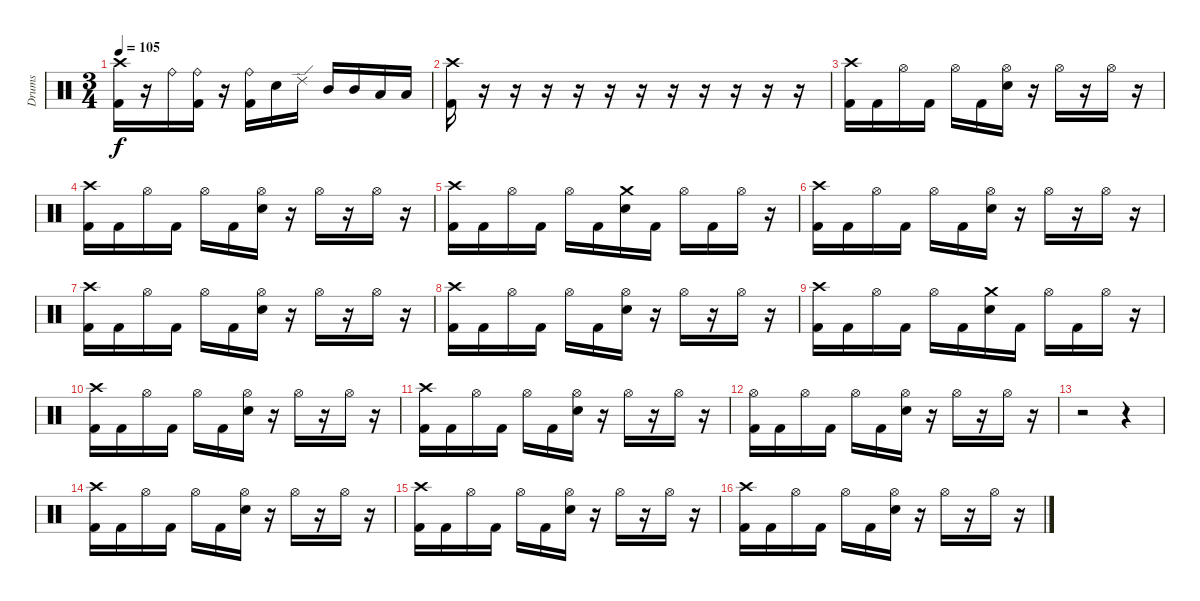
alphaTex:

\track ("Drums" "Drums") {instrument percussion}
\staff {score}
\articulation defaults
\ts (3 4)
\tempo 105
\clef neutral
\ks c
("Crash high (hit)" "Kick (hit) 2").16{dy f} r.16 "Ride (bell)".16 ("Ride (bell)" "Kick (hit) 2").16 r.16 ("Ride (bell)" "Kick (hit) 2").16 "Electric Snare (hit)".16 "Ride (edge) 2".16 "Mid Tom (hit)".16 "Mid Tom (hit)".16 "Low Tom (hit)".16 "Low Tom (hit)".16 |
("Crash high (hit)" "Kick (hit) 2").16 r.16 r.16 r.16 r.16 r.16 r.16 r.16 r.16 r.16 r.16 r.16 |
("Crash high (hit)" "Kick (hit) 2").16 "Kick (hit) 2".16 "Hi-Hat (open)".16 "Kick (hit) 2".16 "Hi-Hat (open)".16 "Kick (hit) 2".16 ("Hi-Hat (open)" "Electric Snare (hit)").16 r.16 "Hi-Hat (open)".16 r.16 "Hi-Hat (open)".16 r.16 |
("Crash high (hit)" "Kick (hit) 2").16 "Kick (hit) 2".16 "Hi-Hat (open)".16 "Kick (hit) 2".16 "Hi-Hat (open)".16 "Kick (hit) 2".16 ("Hi-Hat (open)" "Electric Snare (hit)").16 r.16 "Hi-Hat (open)".16 r.16 "Hi-Hat (open)".16 r.16 |
("Crash high (hit)" "Kick (hit) 2").16 "Kick (hit) 2".16 "Hi-Hat (open)".16 "Kick (hit) 2".16 "Hi-Hat (open)".16 "Kick (hit) 2".16 ("Crash medium (hit)" "Electric Snare (hit)").16 "Kick (hit) 2".16 "Hi-Hat (open)".16 "Kick (hit) 2".16 "Hi-Hat (open)".16 r.16 |
("Crash high (hit)" "Kick (hit) 2").16 "Kick (hit) 2".16 "Hi-Hat (open)".16 "Kick (hit) 2".16 "Hi-Hat (open)".16 "Kick (hit) 2".16 ("Hi-Hat (open)" "Electric Snare (hit)").16 r.16 "Hi-Hat (open)".16 r.16 "Hi-Hat (open)".16 r.16 |
("Crash high (hit)" "Kick (hit) 2").16 "Kick (hit) 2".16 "Hi-Hat (open)".16 "Kick (hit) 2".16 "Hi-Hat (open)".16 "Kick (hit) 2".16 ("Hi-Hat (open)" "Electric Snare (hit)").16 r.16 "Hi-Hat (open)".16 r.16 "Hi-Hat (open)".16 r.16 |
("Crash high (hit)" "Kick (hit) 2").16 "Kick (hit) 2".16 "Hi-Hat (open)".16 "Kick (hit) 2".16 "Hi-Hat (open)".16 "Kick (hit) 2".16 ("Hi-Hat (open)" "Electric Snare (hit)").16 r.16 "Hi-Hat (open)".16 r.16 "Hi-Hat (open)".16 r.16 |
("Crash high (hit)" "Kick (hit) 2").16 "Kick (hit) 2".16 "Hi-Hat (open)".16 "Kick (hit) 2".16 "Hi-Hat (open)".16 "Kick (hit) 2".16 ("Crash medium (hit)" "Electric Snare (hit)").16 "Kick (hit) 2".16 "Hi-Hat (open)".16 "Kick (hit) 2".16 "Hi-Hat (open)".16 r.16 |
("Crash high (hit)" "Kick (hit) 2").16 "Kick (hit) 2".16 "Hi-Hat (open)".16 "Kick (hit) 2".16 "Hi-Hat (open)".16 "Kick (hit) 2".16 ("Hi-Hat (open)" "Electric Snare (hit)").16 r.16 "Hi-Hat (open)".16 r.16 "Hi-Hat (open)".16 r.16 |
("Crash high (hit)" "Kick (hit) 2").16 "Kick (hit) 2".16 "Hi-Hat (open)".16 "Kick (hit) 2".16 "Hi-Hat (open)".16 "Kick (hit) 2".16 ("Hi-Hat (open)" "Electric Snare (hit)").16 r.16 "Hi-Hat (open)".16 r.16 "Hi-Hat (open)".16 r.16 |
("Hi-Hat (open)" "Kick (hit) 2").16 "Kick (hit) 2".16 "Hi-Hat (open)".16 "Kick (hit) 2".16 "Hi-Hat (open)".16 "Kick (hit) 2".16 ("Hi-Hat (open)" "Electric Snare (hit)").16 r.16 "Hi-Hat (open)".16 r.16 "Hi-Hat (open)".16 r.16 |
r.2 r.4 |
("Crash high (hit)" "Kick (hit) 2").16 "Kick (hit) 2".16 "Hi-Hat (open)".16 "Kick (hit) 2".16 "Hi-Hat (open)".16 "Kick (hit) 2".16 ("Hi-Hat (open)" "Electric Snare (hit)").16 r.16 "Hi-Hat (open)".16 r.16 "Hi-Hat (open)".16 r.16 |
("Crash high (hit)" "Kick (hit) 2").16 "Kick (hit) 2".16 "Hi-Hat (open)".16 "Kick (hit) 2".16 "Hi-Hat (open)".16 "Kick (hit) 2".16 ("Hi-Hat (open)" "Electric Snare (hit)").16 r.16 "Hi-Hat (open)".16 r.16 "Hi-Hat (open)".16 r.16 |
("Crash high (hit)" "Kick (hit) 2").16 "Kick (hit) 2".16 "Hi-Hat (open)".16 "Kick (hit) 2".16 "Hi-Hat (open)".16 "Kick (hit) 2".16 ("Hi-Hat (open)" "Electric Snare (hit)").16 r.16 "Hi-Hat (open)".16 r.16 "Hi-Hat (open)".16 r.16
